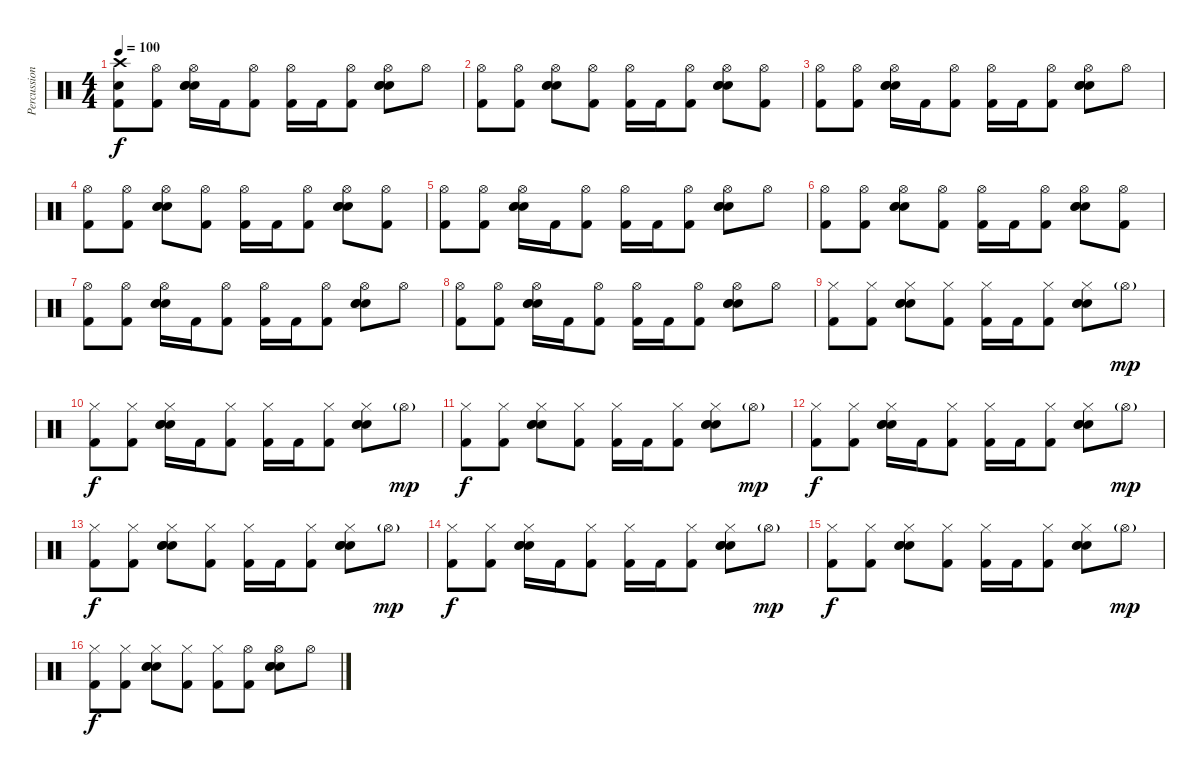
\track ("Percussions" "Percussion") {instrument percussion}
\staff {score}
\articulation defaults
\ts (4 4)
\tempo 100
\clef neutral
\ks c
("Snare (hit) 2" "Crash high (hit)" "Kick (hit) 2").8{dy f} ("Hi-Hat (open)" "Kick (hit) 2").8 ("Hi-Hat (open)" "Snare (hit) 2" "Electric Snare (hit)" "Electric Snare (hit)").16 "Kick (hit) 2".16 ("Hi-Hat (open)" "Kick (hit) 2").8 ("Hi-Hat (open)" "Kick (hit) 2").16 "Kick (hit) 2".16 ("Hi-Hat (open)" "Kick (hit) 2").8 ("Hi-Hat (open)" "Snare (hit) 2" "Electric Snare (hit)" "Electric Snare (hit)").8 "Hi-Hat (open)".8 |
("Hi-Hat (open)" "Kick (hit) 2").8 ("Hi-Hat (open)" "Kick (hit) 2").8 ("Hi-Hat (open)" "Snare (hit) 2" "Electric Snare (hit)" "Electric Snare (hit)").8 ("Hi-Hat (open)" "Kick (hit) 2").8 ("Hi-Hat (open)" "Kick (hit) 2").16 "Kick (hit) 2".16 ("Hi-Hat (open)" "Kick (hit) 2").8 ("Hi-Hat (open)" "Snare (hit) 2" "Electric Snare (hit)" "Electric Snare (hit)").8 ("Hi-Hat (open)" "Kick (hit) 2").8 |
("Hi-Hat (open)" "Kick (hit) 2").8 ("Hi-Hat (open)" "Kick (hit) 2").8 ("Hi-Hat (open)" "Snare (hit) 2" "Electric Snare (hit)" "Electric Snare (hit)").16 "Kick (hit) 2".16 ("Hi-Hat (open)" "Kick (hit) 2").8 ("Hi-Hat (open)" "Kick (hit) 2").16 "Kick (hit) 2".16 ("Hi-Hat (open)" "Kick (hit) 2").8 ("Hi-Hat (open)" "Snare (hit) 2" "Electric Snare (hit)" "Electric Snare (hit)").8 "Hi-Hat (open)".8 |
("Hi-Hat (open)" "Kick (hit) 2").8 ("Hi-Hat (open)" "Kick (hit) 2").8 ("Hi-Hat (open)" "Snare (hit) 2" "Electric Snare (hit)" "Electric Snare (hit)").8 ("Hi-Hat (open)" "Kick (hit) 2").8 ("Hi-Hat (open)" "Kick (hit) 2").16 "Kick (hit) 2".16 ("Hi-Hat (open)" "Kick (hit) 2").8 ("Hi-Hat (open)" "Snare (hit) 2" "Electric Snare (hit)" "Electric Snare (hit)").8 ("Hi-Hat (open)" "Kick (hit) 2").8 |
("Hi-Hat (open)" "Kick (hit) 2").8 ("Hi-Hat (open)" "Kick (hit) 2").8 ("Hi-Hat (open)" "Snare (hit) 2" "Electric Snare (hit)" "Electric Snare (hit)").16 "Kick (hit) 2".16 ("Hi-Hat (open)" "Kick (hit) 2").8 ("Hi-Hat (open)" "Kick (hit) 2").16 "Kick (hit) 2".16 ("Hi-Hat (open)" "Kick (hit) 2").8 ("Hi-Hat (open)" "Snare (hit) 2" "Electric Snare (hit)" "Electric Snare (hit)").8 "Hi-Hat (open)".8 |
("Hi-Hat (open)" "Kick (hit) 2").8 ("Hi-Hat (open)" "Kick (hit) 2").8 ("Hi-Hat (open)" "Snare (hit) 2" "Electric Snare (hit)" "Electric Snare (hit)").8 ("Hi-Hat (open)" "Kick (hit) 2").8 ("Hi-Hat (open)" "Kick (hit) 2").16 "Kick (hit) 2".16 ("Hi-Hat (open)" "Kick (hit) 2").8 ("Hi-Hat (open)" "Snare (hit) 2" "Electric Snare (hit)" "Electric Snare (hit)").8 ("Hi-Hat (open)" "Kick (hit) 2").8 |
("Hi-Hat (open)" "Kick (hit) 2").8 ("Hi-Hat (open)" "Kick (hit) 2").8 ("Hi-Hat (open)" "Snare (hit) 2" "Electric Snare (hit)" "Electric Snare (hit)").16 "Kick (hit) 2".16 ("Hi-Hat (open)" "Kick (hit) 2").8 ("Hi-Hat (open)" "Kick (hit) 2").16 "Kick (hit) 2".16 ("Hi-Hat (open)" "Kick (hit) 2").8 ("Hi-Hat (open)" "Snare (hit) 2" "Electric Snare (hit)" "Electric Snare (hit)").8 "Hi-Hat (open)".8 |
("Hi-Hat (open)" "Kick (hit) 2").8 ("Hi-Hat (open)" "Kick (hit) 2").8 ("Hi-Hat (open)" "Snare (hit) 2" "Electric Snare (hit)" "Electric Snare (hit)").16 "Kick (hit) 2".16 ("Hi-Hat (open)" "Kick (hit) 2").8 ("Hi-Hat (open)" "Kick (hit) 2").16 "Kick (hit) 2".16 ("Hi-Hat (open)" "Kick (hit) 2").8 ("Hi-Hat (open)" "Snare (hit) 2" "Electric Snare (hit)" "Electric Snare (hit)").8 "Hi-Hat (open)".8 |
("Hi-Hat (closed)" "Kick (hit) 2").8 ("Hi-Hat (closed)" "Kick (hit) 2").8 ("Hi-Hat (closed)" "Snare (hit) 2" "Electric Snare (hit)" "Electric Snare (hit)").8 ("Hi-Hat (closed)" "Kick (hit) 2").8 ("Hi-Hat (closed)" "Kick (hit) 2").16 "Kick (hit) 2".16 ("Hi-Hat (closed)" "Kick (hit) 2").8 ("Hi-Hat (closed)" "Snare (hit) 2" "Electric Snare (hit)" "Electric Snare (hit)").8 "Hi-Hat (open)"{g}.8{dy mp} |
("Hi-Hat (closed)" "Kick (hit) 2").8{dy f} ("Hi-Hat (closed)" "Kick (hit) 2").8 ("Hi-Hat (closed)" "Snare (hit) 2" "Electric Snare (hit)" "Electric Snare (hit)").16 "Kick (hit) 2".16 ("Hi-Hat (closed)" "Kick (hit) 2").8 ("Hi-Hat (closed)" "Kick (hit) 2").16 "Kick (hit) 2".16 ("Hi-Hat (closed)" "Kick (hit) 2").8 ("Hi-Hat (closed)" "Snare (hit) 2" "Electric Snare (hit)" "Electric Snare (hit)").8 "Hi-Hat (open)"{g}.8{dy mp} |
("Hi-Hat (closed)" "Kick (hit) 2").8{dy f} ("Hi-Hat (closed)" "Kick (hit) 2").8 ("Hi-Hat (closed)" "Snare (hit) 2" "Electric Snare (hit)" "Electric Snare (hit)").8 ("Hi-Hat (closed)" "Kick (hit) 2").8 ("Hi-Hat (closed)" "Kick (hit) 2").16 "Kick (hit) 2".16 ("Hi-Hat (closed)" "Kick (hit) 2").8 ("Hi-Hat (closed)" "Snare (hit) 2" "Electric Snare (hit)" "Electric Snare (hit)").8 "Hi-Hat (open)"{g}.8{dy mp} |
("Hi-Hat (closed)" "Kick (hit) 2").8{dy f} ("Hi-Hat (closed)" "Kick (hit) 2").8 ("Hi-Hat (closed)" "Snare (hit) 2" "Electric Snare (hit)" "Electric Snare (hit)").16 "Kick (hit) 2".16 ("Hi-Hat (closed)" "Kick (hit) 2").8 ("Hi-Hat (closed)" "Kick (hit) 2").16 "Kick (hit) 2".16 ("Hi-Hat (closed)" "Kick (hit) 2").8 ("Hi-Hat (closed)" "Snare (hit) 2" "Electric Snare (hit)" "Electric Snare (hit)").8 "Hi-Hat (open)"{g}.8{dy mp} |
("Hi-Hat (closed)" "Kick (hit) 2").8{dy f} ("Hi-Hat (closed)" "Kick (hit) 2").8 ("Hi-Hat (closed)" "Snare (hit) 2" "Electric Snare (hit)" "Electric Snare (hit)").8 ("Hi-Hat (closed)" "Kick (hit) 2").8 ("Hi-Hat (closed)" "Kick (hit) 2").16 "Kick (hit) 2".16 ("Hi-Hat (closed)" "Kick (hit) 2").8 ("Hi-Hat (closed)" "Snare (hit) 2" "Electric Snare (hit)" "Electric Snare (hit)").8 "Hi-Hat (open)"{g}.8{dy mp} |
("Hi-Hat (closed)" "Kick (hit) 2").8{dy f} ("Hi-Hat (closed)" "Kick (hit) 2").8 ("Hi-Hat (closed)" "Snare (hit) 2" "Electric Snare (hit)" "Electric Snare (hit)").16 "Kick (hit) 2".16 ("Hi-Hat (closed)" "Kick (hit) 2").8 ("Hi-Hat (closed)" "Kick (hit) 2").16 "Kick (hit) 2".16 ("Hi-Hat (closed)" "Kick (hit) 2").8 ("Hi-Hat (closed)" "Snare (hit) 2" "Electric Snare (hit)" "Electric Snare (hit)").8 "Hi-Hat (open)"{g}.8{dy mp} |
("Hi-Hat (closed)" "Kick (hit) 2").8{dy f} ("Hi-Hat (closed)" "Kick (hit) 2").8 ("Hi-Hat (closed)" "Snare (hit) 2" "Electric Snare (hit)" "Electric Snare (hit)").8 ("Hi-Hat (closed)" "Kick (hit) 2").8 ("Hi-Hat (closed)" "Kick (hit) 2").16 "Kick (hit) 2".16 ("Hi-Hat (closed)" "Kick (hit) 2").8 ("Hi-Hat (closed)" "Snare (hit) 2" "Electric Snare (hit)" "Electric Snare (hit)").8 "Hi-Hat (open)"{g}.8{dy mp} |
("Hi-Hat (closed)" "Kick (hit) 2").8{dy f} ("Hi-Hat (closed)" "Kick (hit) 2").8 ("Hi-Hat (closed)" "Snare (hit) 2" "Electric Snare (hit)" "Electric Snare (hit)").8 ("Hi-Hat (closed)" "Kick (hit) 2").8 ("Hi-Hat (closed)" "Kick (hit) 2").8 ("Hi-Hat (open)" "Kick (hit) 2").8 ("Hi-Hat (open)" "Snare (hit) 2" "Electric Snare (hit)" "Electric Snare (hit)").8 "Hi-Hat (open)".8
